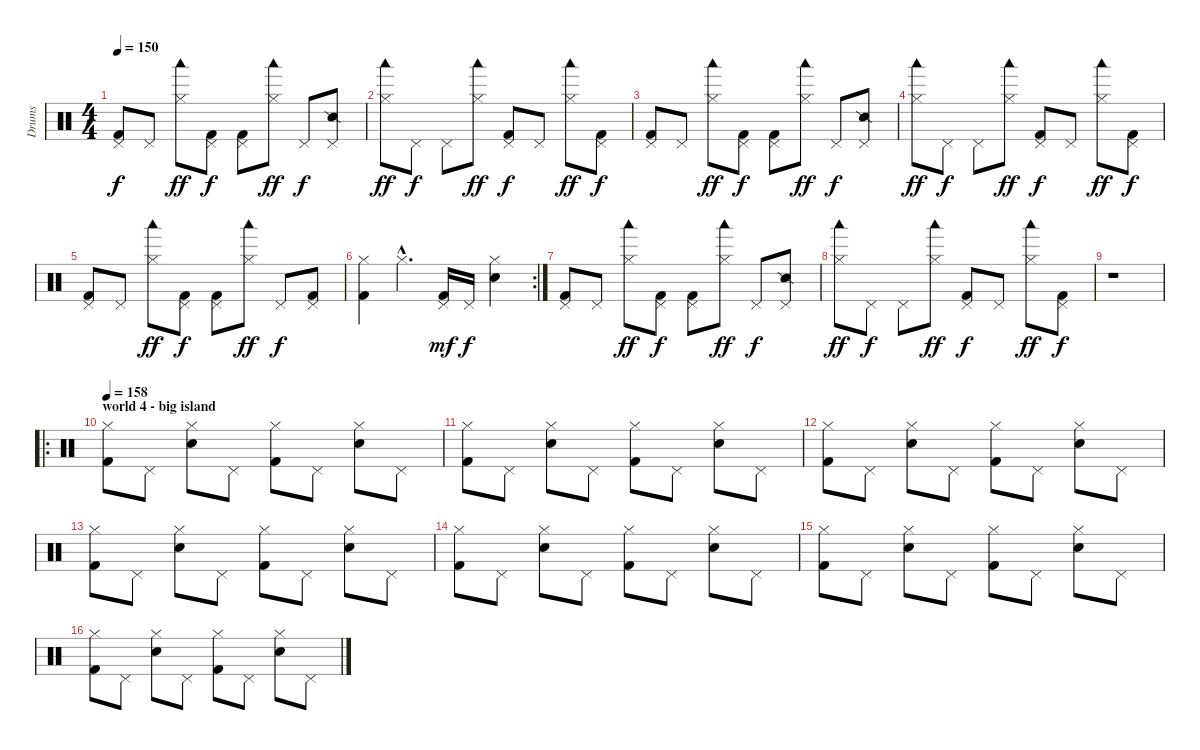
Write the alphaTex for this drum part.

\track ("Drums" "Drums") {instrument percussion}
\staff {score}
\articulation defaults
\ts (4 4)
\tempo 150
\clef neutral
\ks c
("Pedal Hi-Hat (hit)" "Kick (hit) 2").8{dy f} "Pedal Hi-Hat (hit)".8 ("Hi-Hat (closed)" "Woodblock low (hit)").8{dy ff} ("Pedal Hi-Hat (hit)" "Kick (hit) 2").8{dy f} ("Pedal Hi-Hat (hit)" "Kick (hit) 2").8 ("Hi-Hat (closed)" "Woodblock low (hit)").8{dy ff} "Pedal Hi-Hat (hit)".8{dy f} ("Pedal Hi-Hat (hit)" "Snare (side stick) 2").8 |
("Hi-Hat (closed)" "Woodblock low (hit)").8{dy ff} "Pedal Hi-Hat (hit)".8{dy f} "Pedal Hi-Hat (hit)".8 ("Hi-Hat (closed)" "Woodblock low (hit)").8{dy ff} ("Pedal Hi-Hat (hit)" "Kick (hit) 2").8{dy f} "Pedal Hi-Hat (hit)".8 ("Hi-Hat (closed)" "Woodblock low (hit)").8{dy ff} ("Pedal Hi-Hat (hit)" "Kick (hit) 2").8{dy f} |
("Pedal Hi-Hat (hit)" "Kick (hit) 2").8 "Pedal Hi-Hat (hit)".8 ("Hi-Hat (closed)" "Woodblock low (hit)").8{dy ff} ("Pedal Hi-Hat (hit)" "Kick (hit) 2").8{dy f} ("Pedal Hi-Hat (hit)" "Kick (hit) 2").8 ("Hi-Hat (closed)" "Woodblock low (hit)").8{dy ff} "Pedal Hi-Hat (hit)".8{dy f} ("Pedal Hi-Hat (hit)" "Snare (side stick) 2").8 |
("Hi-Hat (closed)" "Woodblock low (hit)").8{dy ff} "Pedal Hi-Hat (hit)".8{dy f} "Pedal Hi-Hat (hit)".8 ("Hi-Hat (closed)" "Woodblock low (hit)").8{dy ff} ("Pedal Hi-Hat (hit)" "Kick (hit) 2").8{dy f} "Pedal Hi-Hat (hit)".8 ("Hi-Hat (closed)" "Woodblock low (hit)").8{dy ff} ("Pedal Hi-Hat (hit)" "Kick (hit) 2").8{dy f} |
("Pedal Hi-Hat (hit)" "Kick (hit) 2").8 "Pedal Hi-Hat (hit)".8 ("Hi-Hat (closed)" "Woodblock low (hit)").8{dy ff} ("Pedal Hi-Hat (hit)" "Kick (hit) 2").8{dy f} ("Pedal Hi-Hat (hit)" "Kick (hit) 2").8 ("Hi-Hat (closed)" "Woodblock low (hit)").8{dy ff} "Pedal Hi-Hat (hit)".8{dy f} ("Pedal Hi-Hat (hit)" "Kick (hit) 2").8 |
\rc 2
("Hi-Hat (closed)" "Kick (hit) 2").4 "Hi-Hat (closed)"{hac}.4{d} ("Pedal Hi-Hat (hit)" "Kick (hit) 2").16{dy mf} "Pedal Hi-Hat (hit)".16{dy f} ("Hi-Hat (closed)" "Snare (hit) 2").4 |
("Pedal Hi-Hat (hit)" "Kick (hit) 2").8 "Pedal Hi-Hat (hit)".8 ("Hi-Hat (closed)" "Woodblock low (hit)").8{dy ff} ("Pedal Hi-Hat (hit)" "Kick (hit) 2").8{dy f} ("Pedal Hi-Hat (hit)" "Kick (hit) 2").8 ("Hi-Hat (closed)" "Woodblock low (hit)").8{dy ff} "Pedal Hi-Hat (hit)".8{dy f} ("Pedal Hi-Hat (hit)" "Snare (side stick) 2").8 |
("Hi-Hat (closed)" "Woodblock low (hit)").8{dy ff} "Pedal Hi-Hat (hit)".8{dy f} "Pedal Hi-Hat (hit)".8 ("Hi-Hat (closed)" "Woodblock low (hit)").8{dy ff} ("Pedal Hi-Hat (hit)" "Kick (hit) 2").8{dy f} "Pedal Hi-Hat (hit)".8 ("Hi-Hat (closed)" "Woodblock low (hit)").8{dy ff} ("Pedal Hi-Hat (hit)" "Kick (hit) 2").8{dy f} |
r.1 |
\ro
\section ("" "world 4 - big island")
\tempo 158
("Hi-Hat (closed)" "Kick (hit) 2").8{volume 12} "Pedal Hi-Hat (hit)".8 ("Hi-Hat (closed)" "Electric Snare (hit)").8 "Pedal Hi-Hat (hit)".8 ("Hi-Hat (closed)" "Kick (hit) 2").8 "Pedal Hi-Hat (hit)".8 ("Hi-Hat (closed)" "Electric Snare (hit)").8 "Pedal Hi-Hat (hit)".8 |
("Hi-Hat (closed)" "Kick (hit) 2").8 "Pedal Hi-Hat (hit)".8 ("Hi-Hat (closed)" "Electric Snare (hit)").8 "Pedal Hi-Hat (hit)".8 ("Hi-Hat (closed)" "Kick (hit) 2").8 "Pedal Hi-Hat (hit)".8 ("Hi-Hat (closed)" "Electric Snare (hit)").8 "Pedal Hi-Hat (hit)".8 |
("Hi-Hat (closed)" "Kick (hit) 2").8 "Pedal Hi-Hat (hit)".8 ("Hi-Hat (closed)" "Electric Snare (hit)").8 "Pedal Hi-Hat (hit)".8 ("Hi-Hat (closed)" "Kick (hit) 2").8 "Pedal Hi-Hat (hit)".8 ("Hi-Hat (closed)" "Electric Snare (hit)").8 "Pedal Hi-Hat (hit)".8 |
("Hi-Hat (closed)" "Kick (hit) 2").8 "Pedal Hi-Hat (hit)".8 ("Hi-Hat (closed)" "Electric Snare (hit)").8 "Pedal Hi-Hat (hit)".8 ("Hi-Hat (closed)" "Kick (hit) 2").8 "Pedal Hi-Hat (hit)".8 ("Hi-Hat (closed)" "Electric Snare (hit)").8 "Pedal Hi-Hat (hit)".8 |
("Hi-Hat (closed)" "Kick (hit) 2").8 "Pedal Hi-Hat (hit)".8 ("Hi-Hat (closed)" "Electric Snare (hit)").8 "Pedal Hi-Hat (hit)".8 ("Hi-Hat (closed)" "Kick (hit) 2").8 "Pedal Hi-Hat (hit)".8 ("Hi-Hat (closed)" "Electric Snare (hit)").8 "Pedal Hi-Hat (hit)".8 |
("Hi-Hat (closed)" "Kick (hit) 2").8 "Pedal Hi-Hat (hit)".8 ("Hi-Hat (closed)" "Electric Snare (hit)").8 "Pedal Hi-Hat (hit)".8 ("Hi-Hat (closed)" "Kick (hit) 2").8 "Pedal Hi-Hat (hit)".8 ("Hi-Hat (closed)" "Electric Snare (hit)").8 "Pedal Hi-Hat (hit)".8 |
("Hi-Hat (closed)" "Kick (hit) 2").8 "Pedal Hi-Hat (hit)".8 ("Hi-Hat (closed)" "Electric Snare (hit)").8 "Pedal Hi-Hat (hit)".8 ("Hi-Hat (closed)" "Kick (hit) 2").8 "Pedal Hi-Hat (hit)".8 ("Hi-Hat (closed)" "Electric Snare (hit)").8 "Pedal Hi-Hat (hit)".8
